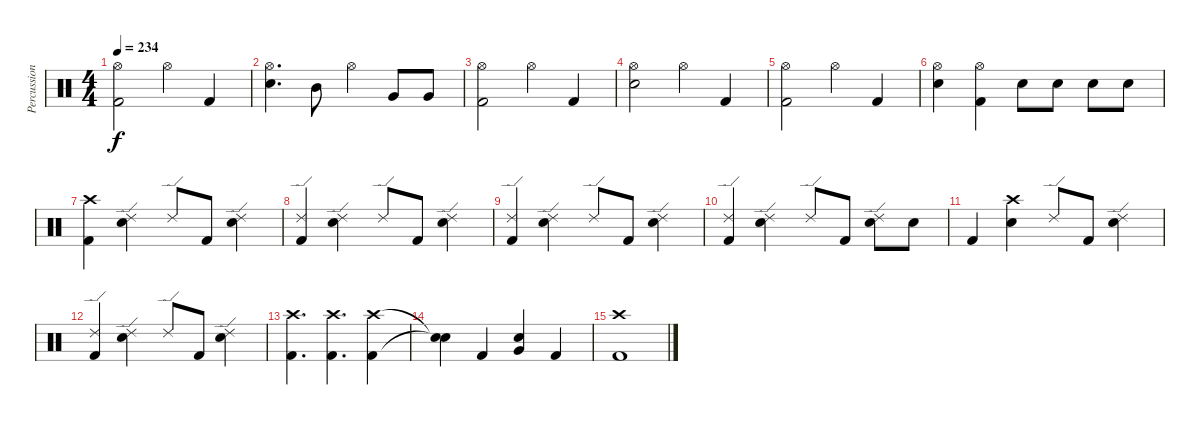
\track ("Percussions" "Percussion") {instrument percussion}
\staff {score}
\articulation defaults
\ts (4 4)
\tempo 234
\clef neutral
\ks c
("Hi-Hat (open)" "Kick (hit) 2").2{dy f} "Hi-Hat (open)".4 "Kick (hit) 2".4 |
("Hi-Hat (open)" "Snare (hit) 2").4{d} "Mid Tom (hit)".8 "Hi-Hat (open)".4 "Very Low Tom (hit)".8 "Very Low Tom (hit)".8 |
("Hi-Hat (open)" "Kick (hit) 2").2 "Hi-Hat (open)".4 "Kick (hit) 2".4 |
("Hi-Hat (open)" "Snare (hit) 2").2 "Hi-Hat (open)".4 "Kick (hit) 2".4 |
("Hi-Hat (open)" "Kick (hit) 2").2 "Hi-Hat (open)".4 "Kick (hit) 2".4 |
("Hi-Hat (open)" "Snare (hit) 2").4 ("Hi-Hat (open)" "Kick (hit) 2").4 "Snare (hit) 2".8 "Snare (hit) 2".8 "Snare (hit) 2".8 "Snare (hit) 2".8 |
("Crash high (hit)" "Kick (hit) 2").4 ("Ride (edge) 2" "Snare (hit) 2").4 "Ride (edge) 2".8 "Kick (hit) 2".8 ("Ride (edge) 2" "Snare (hit) 2").4 |
("Ride (edge) 2" "Kick (hit) 2").4 ("Ride (edge) 2" "Snare (hit) 2").4 "Ride (edge) 2".8 "Kick (hit) 2".8 ("Ride (edge) 2" "Snare (hit) 2").4 |
("Ride (edge) 2" "Kick (hit) 2").4 ("Ride (edge) 2" "Snare (hit) 2").4 "Ride (edge) 2".8 "Kick (hit) 2".8 ("Ride (edge) 2" "Snare (hit) 2").4 |
("Ride (edge) 2" "Kick (hit) 2").4 ("Ride (edge) 2" "Snare (hit) 2").4 "Ride (edge) 2".8 "Kick (hit) 2".8 ("Ride (edge) 2" "Snare (hit) 2").8 "Snare (hit) 2".8 |
"Kick (hit) 2".4 ("Crash high (hit)" "Snare (hit) 2").4 "Ride (edge) 2".8 "Kick (hit) 2".8 ("Ride (edge) 2" "Snare (hit) 2").4 |
("Ride (edge) 2" "Kick (hit) 2").4 ("Ride (edge) 2" "Snare (hit) 2").4 "Ride (edge) 2".8 "Kick (hit) 2".8 ("Ride (edge) 2" "Snare (hit) 2").4 |
("Crash high (hit)" "Kick (hit) 2").4{d} ("Crash high (hit)" "Kick (hit) 2").4{d} ("Crash high (hit)" "Kick (hit) 2").4 |
("Snare (hit)"{t} "Snare (hit)"{t}).4 "Kick (hit) 2".4 ("Snare (hit) 2" "Very Low Tom (hit)").4 "Kick (hit) 2".4 |
("Crash high (hit)" "Kick (hit) 2").1
